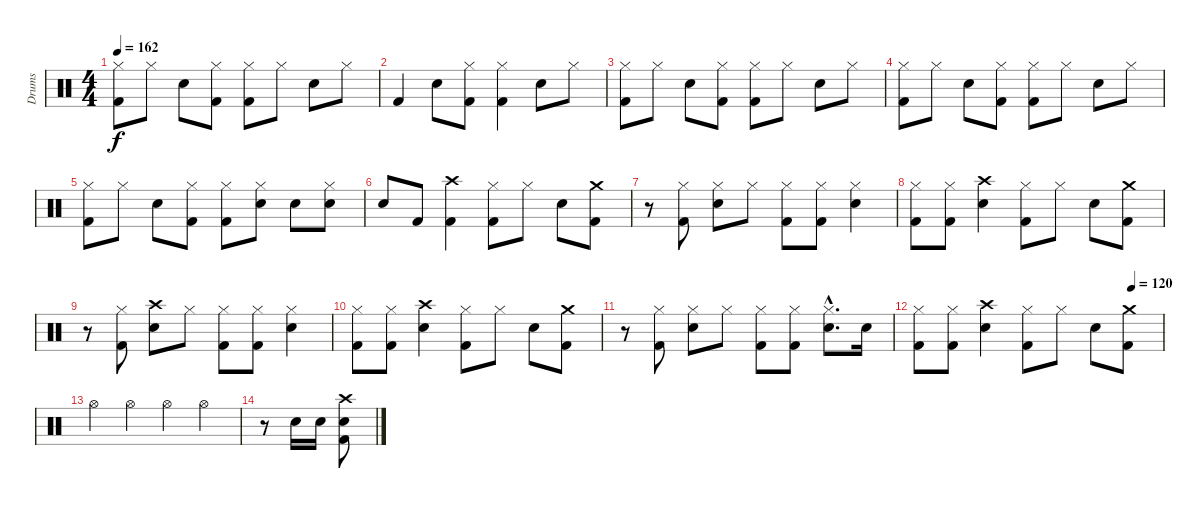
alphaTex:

\track ("Drums" "Drums") {instrument percussion}
\staff {score}
\articulation defaults
\ts (4 4)
\tempo 162
\clef neutral
\ks c
("Hi-Hat (closed)" "Kick (hit) 2").8{dy f} "Hi-Hat (closed)".8 "Snare (hit) 2".8 ("Hi-Hat (closed)" "Kick (hit) 2").8 ("Hi-Hat (closed)" "Kick (hit) 2").8 "Hi-Hat (closed)".8 "Snare (hit) 2".8 "Hi-Hat (closed)".8 |
"Kick (hit) 2".4 "Snare (hit) 2".8 ("Hi-Hat (closed)" "Kick (hit) 2").8 ("Hi-Hat (closed)" "Kick (hit) 2").4 "Snare (hit) 2".8 "Hi-Hat (closed)".8 |
("Hi-Hat (closed)" "Kick (hit) 2").8 "Hi-Hat (closed)".8 "Snare (hit) 2".8 ("Hi-Hat (closed)" "Kick (hit) 2").8 ("Hi-Hat (closed)" "Kick (hit) 2").8 "Hi-Hat (closed)".8 "Snare (hit) 2".8 "Hi-Hat (closed)".8 |
("Hi-Hat (closed)" "Kick (hit) 2").8 "Hi-Hat (closed)".8 "Snare (hit) 2".8 ("Hi-Hat (closed)" "Kick (hit) 2").8 ("Hi-Hat (closed)" "Kick (hit) 2").8 "Hi-Hat (closed)".8 "Snare (hit) 2".8 "Hi-Hat (closed)".8 |
("Hi-Hat (closed)" "Kick (hit) 2").8 "Hi-Hat (closed)".8 "Snare (hit) 2".8 ("Hi-Hat (closed)" "Kick (hit) 2").8 ("Hi-Hat (closed)" "Kick (hit) 2").8 ("Hi-Hat (closed)" "Snare (hit) 2").8 "Snare (hit) 2".8 ("Hi-Hat (closed)" "Snare (hit) 2").8 |
"Snare (hit) 2".8 "Kick (hit) 2".8 ("Crash high (hit)" "Kick (hit) 2").4 ("Hi-Hat (closed)" "Kick (hit) 2").8 "Hi-Hat (closed)".8 "Snare (hit) 2".8 ("Crash medium (hit)" "Kick (hit) 2").8 |
r.8 ("Hi-Hat (closed)" "Kick (hit) 2").8 ("Hi-Hat (closed)" "Snare (hit) 2").8 "Hi-Hat (closed)".8 ("Hi-Hat (closed)" "Kick (hit) 2").8 ("Hi-Hat (closed)" "Kick (hit) 2").8 ("Hi-Hat (closed)" "Snare (hit) 2").4 |
("Hi-Hat (closed)" "Kick (hit) 2").8 ("Hi-Hat (closed)" "Kick (hit) 2").8 ("Crash high (hit)" "Snare (hit) 2").4 ("Hi-Hat (closed)" "Kick (hit) 2").8 "Hi-Hat (closed)".8 "Snare (hit) 2".8 ("Crash medium (hit)" "Kick (hit) 2").8 |
r.8 ("Hi-Hat (closed)" "Kick (hit) 2").8 ("Crash high (hit)" "Snare (hit) 2").8 "Hi-Hat (closed)".8 ("Hi-Hat (closed)" "Kick (hit) 2").8 ("Hi-Hat (closed)" "Kick (hit) 2").8 ("Hi-Hat (closed)" "Snare (hit) 2").4 |
("Hi-Hat (closed)" "Kick (hit) 2").8 ("Hi-Hat (closed)" "Kick (hit) 2").8 ("Crash high (hit)" "Snare (hit) 2").4 ("Hi-Hat (closed)" "Kick (hit) 2").8 "Hi-Hat (closed)".8 "Snare (hit) 2".8 ("Crash medium (hit)" "Kick (hit) 2").8 |
r.8 ("Hi-Hat (closed)" "Kick (hit) 2").8 ("Hi-Hat (closed)" "Snare (hit) 2").8 "Hi-Hat (closed)".8 ("Hi-Hat (closed)" "Kick (hit) 2").8 ("Hi-Hat (closed)" "Kick (hit) 2").8 ("Hi-Hat (closed)"{hac} "Snare (hit) 2"{hac}).8{d} "Snare (hit) 2".16 |
\tempo (120 0.875)
("Hi-Hat (closed)" "Kick (hit) 2").8 ("Hi-Hat (closed)" "Kick (hit) 2").8 ("Crash high (hit)" "Snare (hit) 2").4 ("Hi-Hat (closed)" "Kick (hit) 2").8 "Hi-Hat (closed)".8 "Snare (hit) 2".8 ("Crash medium (hit)" "Kick (hit) 2").8 |
"Hi-Hat (open)".4 "Hi-Hat (open)".4 "Hi-Hat (open)".4 "Hi-Hat (open)".4 |
r.8 "Snare (hit) 2".16 "Snare (hit) 2".16 ("Crash high (hit)" "Snare (hit) 2" "Kick (hit) 2").8
